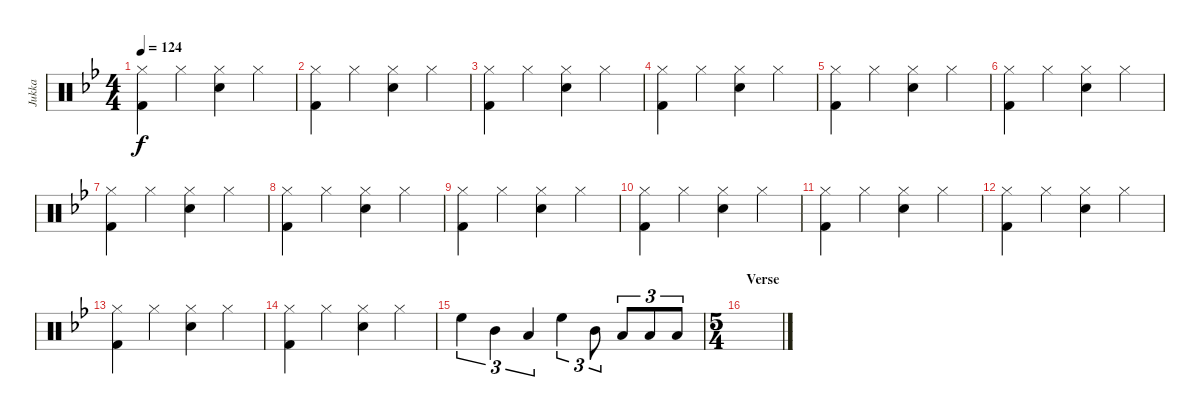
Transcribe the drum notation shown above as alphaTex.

\track ("Jukka" "Jukka") {instrument percussion}
\staff {score}
\articulation defaults
\ts (4 4)
\tempo 124
\clef neutral
\ks bb
("Hi-Hat (closed)" "Kick (hit) 2").4{dy f} "Hi-Hat (closed)".4 ("Hi-Hat (closed)" "Snare (hit) 2").4 "Hi-Hat (closed)".4 |
("Hi-Hat (closed)" "Kick (hit) 2").4 "Hi-Hat (closed)".4 ("Hi-Hat (closed)" "Snare (hit) 2").4 "Hi-Hat (closed)".4 |
("Hi-Hat (closed)" "Kick (hit) 2").4 "Hi-Hat (closed)".4 ("Hi-Hat (closed)" "Snare (hit) 2").4 "Hi-Hat (closed)".4 |
("Hi-Hat (closed)" "Kick (hit) 2").4 "Hi-Hat (closed)".4 ("Hi-Hat (closed)" "Snare (hit) 2").4 "Hi-Hat (closed)".4 |
("Hi-Hat (closed)" "Kick (hit) 2").4 "Hi-Hat (closed)".4 ("Hi-Hat (closed)" "Snare (hit) 2").4 "Hi-Hat (closed)".4 |
("Hi-Hat (closed)" "Kick (hit) 2").4 "Hi-Hat (closed)".4 ("Hi-Hat (closed)" "Snare (hit) 2").4 "Hi-Hat (closed)".4 |
("Hi-Hat (closed)" "Kick (hit) 2").4 "Hi-Hat (closed)".4 ("Hi-Hat (closed)" "Snare (hit) 2").4 "Hi-Hat (closed)".4 |
("Hi-Hat (closed)" "Kick (hit) 2").4 "Hi-Hat (closed)".4 ("Hi-Hat (closed)" "Snare (hit) 2").4 "Hi-Hat (closed)".4 |
("Hi-Hat (closed)" "Kick (hit) 2").4 "Hi-Hat (closed)".4 ("Hi-Hat (closed)" "Snare (hit) 2").4 "Hi-Hat (closed)".4 |
("Hi-Hat (closed)" "Kick (hit) 2").4 "Hi-Hat (closed)".4 ("Hi-Hat (closed)" "Snare (hit) 2").4 "Hi-Hat (closed)".4 |
("Hi-Hat (closed)" "Kick (hit) 2").4 "Hi-Hat (closed)".4 ("Hi-Hat (closed)" "Snare (hit) 2").4 "Hi-Hat (closed)".4 |
("Hi-Hat (closed)" "Kick (hit) 2").4 "Hi-Hat (closed)".4 ("Hi-Hat (closed)" "Snare (hit) 2").4 "Hi-Hat (closed)".4 |
("Hi-Hat (closed)" "Kick (hit) 2").4 "Hi-Hat (closed)".4 ("Hi-Hat (closed)" "Snare (hit) 2").4 "Hi-Hat (closed)".4 |
("Hi-Hat (closed)" "Kick (hit) 2").4 "Hi-Hat (closed)".4 ("Hi-Hat (closed)" "Snare (hit) 2").4 "Hi-Hat (closed)".4 |
"High Floor Tom (hit)".4{tu (3 2)} "Mid Tom (hit)".4{tu (3 2)} "Low Tom (hit)".4{tu (3 2)} "High Floor Tom (hit)".4{tu (3 2)} "Mid Tom (hit)".8{tu (3 2)} "Low Tom (hit)".8{tu (3 2)} "Low Tom (hit)".8{tu (3 2)} "Low Floor Tom (hit)".8{tu (3 2)} |
\ts (5 4)
\section ("" "Verse")
